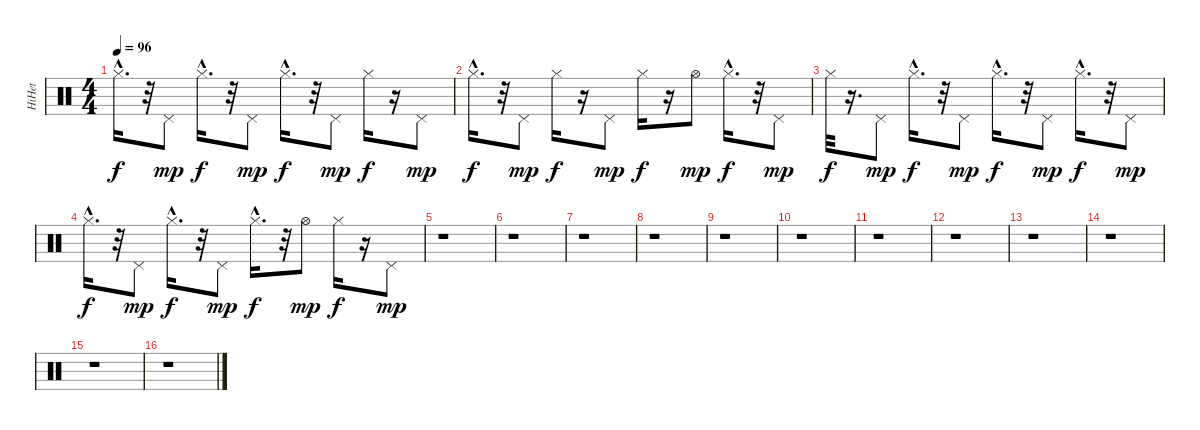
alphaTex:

\track ("HiHet" "HiHet") {instrument percussion}
\staff {score}
\articulation defaults
\ts (4 4)
\tempo 96
\clef neutral
\ks c "Hi-Hat (closed)"{hac}.16{d dy f}
r.32 "Pedal Hi-Hat (hit)".8{dy mp} "Hi-Hat (closed)"{hac}.16{d dy f} r.32 "Pedal Hi-Hat (hit)".8{dy mp} "Hi-Hat (closed)"{hac}.16{d dy f} r.32 "Pedal Hi-Hat (hit)".8{dy mp} "Hi-Hat (closed)".16{dy f} r.16 "Pedal Hi-Hat (hit)".8{dy mp} |
"Hi-Hat (closed)"{hac}.16{d dy f} r.32 "Pedal Hi-Hat (hit)".8{dy mp} "Hi-Hat (closed)".16{dy f} r.16 "Pedal Hi-Hat (hit)".8{dy mp} "Hi-Hat (closed)".16{dy f} r.16 "Hi-Hat (open)".8{dy mp} "Hi-Hat (closed)"{hac}.16{d dy f} r.32 "Pedal Hi-Hat (hit)".8{dy mp} |
"Hi-Hat (closed)".32{dy f} r.16{d} "Pedal Hi-Hat (hit)".8{dy mp} "Hi-Hat (closed)"{hac}.16{d dy f} r.32 "Pedal Hi-Hat (hit)".8{dy mp} "Hi-Hat (closed)"{hac}.16{d dy f} r.32 "Pedal Hi-Hat (hit)".8{dy mp} "Hi-Hat (closed)"{hac}.16{d dy f} r.32 "Pedal Hi-Hat (hit)".8{dy mp} |
"Hi-Hat (closed)"{hac}.16{d dy f} r.32 "Pedal Hi-Hat (hit)".8{dy mp} "Hi-Hat (closed)"{hac}.16{d dy f} r.32 "Pedal Hi-Hat (hit)".8{dy mp} "Hi-Hat (closed)"{hac}.16{d dy f} r.32 "Hi-Hat (open)".8{dy mp} "Hi-Hat (closed)".16{dy f} r.16 "Pedal Hi-Hat (hit)".8{dy mp} |
r.1 |
r.1 |
r.1 |
r.1 |
r.1 |
r.1 |
r.1 |
r.1 |
r.1 |
r.1 |
r.1 |
r.1
